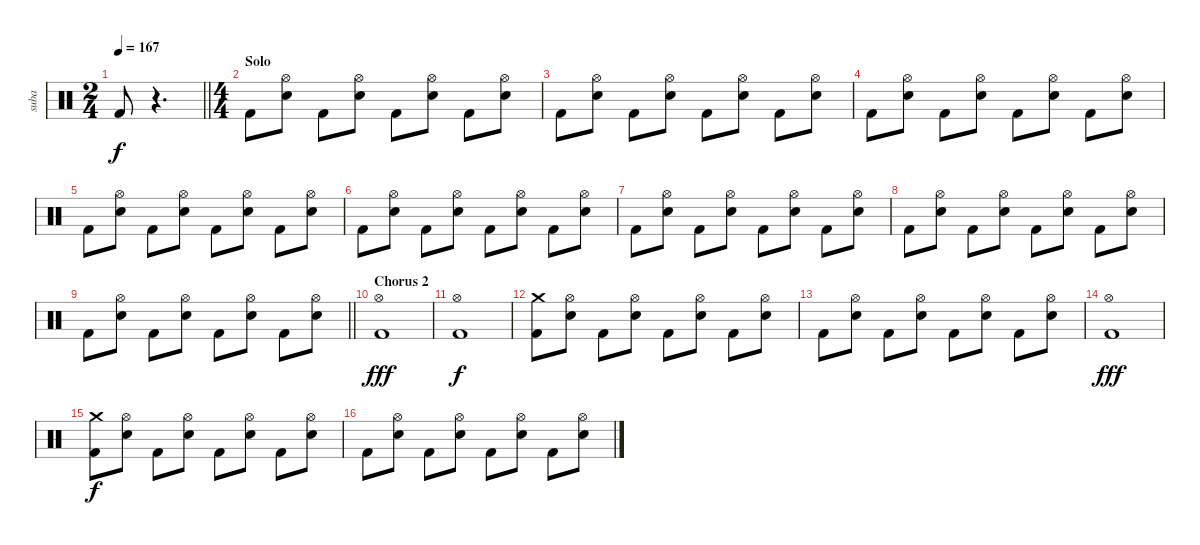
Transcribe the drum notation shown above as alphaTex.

\track ("suba" "suba") {instrument percussion}
\staff {score}
\articulation defaults
\ts (2 4)
\tempo 167
\clef neutral
\barLineRight lightlight
\ks c "Kick (hit) 2".8{dy f}
r.4{d} |
\ts (4 4)
\section ("" "Solo")
"Kick (hit) 2".8 ("Hi-Hat (open)" "Electric Snare (hit)").8 "Kick (hit) 2".8 ("Hi-Hat (open)" "Electric Snare (hit)").8 "Kick (hit) 2".8 ("Hi-Hat (open)" "Electric Snare (hit)").8 "Kick (hit) 2".8 ("Hi-Hat (open)" "Electric Snare (hit)").8 |
"Kick (hit) 2".8 ("Hi-Hat (open)" "Electric Snare (hit)").8 "Kick (hit) 2".8 ("Hi-Hat (open)" "Electric Snare (hit)").8 "Kick (hit) 2".8 ("Hi-Hat (open)" "Electric Snare (hit)").8 "Kick (hit) 2".8 ("Hi-Hat (open)" "Electric Snare (hit)").8 |
"Kick (hit) 2".8 ("Hi-Hat (open)" "Electric Snare (hit)").8 "Kick (hit) 2".8 ("Hi-Hat (open)" "Electric Snare (hit)").8 "Kick (hit) 2".8 ("Hi-Hat (open)" "Electric Snare (hit)").8 "Kick (hit) 2".8 ("Hi-Hat (open)" "Electric Snare (hit)").8 |
"Kick (hit) 2".8 ("Hi-Hat (open)" "Electric Snare (hit)").8 "Kick (hit) 2".8 ("Hi-Hat (open)" "Electric Snare (hit)").8 "Kick (hit) 2".8 ("Hi-Hat (open)" "Electric Snare (hit)").8 "Kick (hit) 2".8 ("Hi-Hat (open)" "Electric Snare (hit)").8 |
"Kick (hit) 2".8 ("Hi-Hat (open)" "Electric Snare (hit)").8 "Kick (hit) 2".8 ("Hi-Hat (open)" "Electric Snare (hit)").8 "Kick (hit) 2".8 ("Hi-Hat (open)" "Electric Snare (hit)").8 "Kick (hit) 2".8 ("Hi-Hat (open)" "Electric Snare (hit)").8 |
"Kick (hit) 2".8 ("Hi-Hat (open)" "Electric Snare (hit)").8 "Kick (hit) 2".8 ("Hi-Hat (open)" "Electric Snare (hit)").8 "Kick (hit) 2".8 ("Hi-Hat (open)" "Electric Snare (hit)").8 "Kick (hit) 2".8 ("Hi-Hat (open)" "Electric Snare (hit)").8 |
"Kick (hit) 2".8 ("Hi-Hat (open)" "Electric Snare (hit)").8 "Kick (hit) 2".8 ("Hi-Hat (open)" "Electric Snare (hit)").8 "Kick (hit) 2".8 ("Hi-Hat (open)" "Electric Snare (hit)").8 "Kick (hit) 2".8 ("Hi-Hat (open)" "Electric Snare (hit)").8 |
\barLineRight lightlight "Kick (hit) 2".8
("Hi-Hat (open)" "Electric Snare (hit)").8 "Kick (hit) 2".8 ("Hi-Hat (open)" "Electric Snare (hit)").8 "Kick (hit) 2".8 ("Hi-Hat (open)" "Electric Snare (hit)").8 "Kick (hit) 2".8 ("Hi-Hat (open)" "Electric Snare (hit)").8 |
\section ("" "Chorus 2")
("Hi-Hat (open)" "Kick (hit) 2").1{dy fff} |
("Hi-Hat (open)" "Kick (hit) 2").1{dy f} |
("Crash medium (hit)" "Kick (hit) 2").8 ("Hi-Hat (open)" "Electric Snare (hit)").8 "Kick (hit) 2".8 ("Hi-Hat (open)" "Electric Snare (hit)").8 "Kick (hit) 2".8 ("Hi-Hat (open)" "Electric Snare (hit)").8 "Kick (hit) 2".8 ("Hi-Hat (open)" "Electric Snare (hit)").8 |
"Kick (hit) 2".8 ("Hi-Hat (open)" "Electric Snare (hit)").8 "Kick (hit) 2".8 ("Hi-Hat (open)" "Electric Snare (hit)").8 "Kick (hit) 2".8 ("Hi-Hat (open)" "Electric Snare (hit)").8 "Kick (hit) 2".8 ("Hi-Hat (open)" "Electric Snare (hit)").8 |
("Hi-Hat (open)" "Kick (hit) 2").1{dy fff} |
("Crash medium (hit)" "Kick (hit) 2").8{dy f} ("Hi-Hat (open)" "Electric Snare (hit)").8 "Kick (hit) 2".8 ("Hi-Hat (open)" "Electric Snare (hit)").8 "Kick (hit) 2".8 ("Hi-Hat (open)" "Electric Snare (hit)").8 "Kick (hit) 2".8 ("Hi-Hat (open)" "Electric Snare (hit)").8 |
"Kick (hit) 2".8 ("Hi-Hat (open)" "Electric Snare (hit)").8 "Kick (hit) 2".8 ("Hi-Hat (open)" "Electric Snare (hit)").8 "Kick (hit) 2".8 ("Hi-Hat (open)" "Electric Snare (hit)").8 "Kick (hit) 2".8 ("Hi-Hat (open)" "Electric Snare (hit)").8
